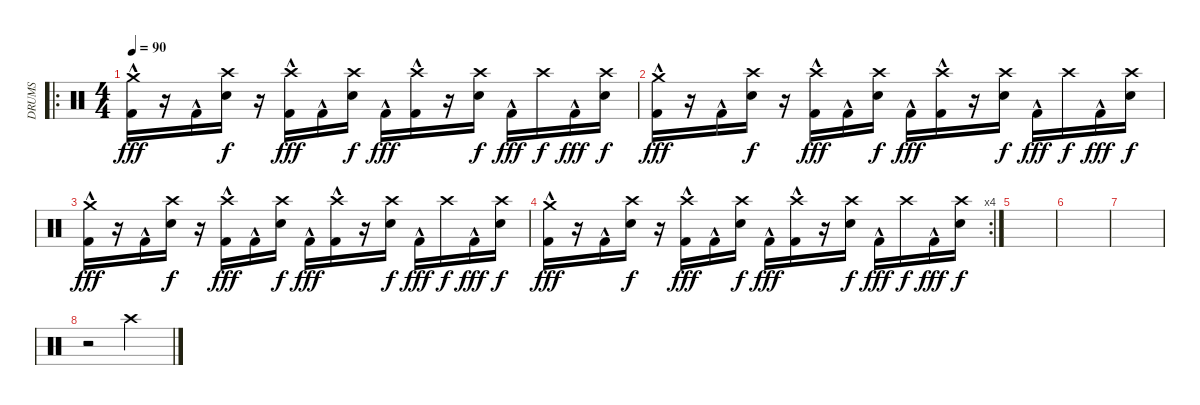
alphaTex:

\track ("DRUMS" "DRUMS") {instrument percussion}
\staff {score}
\articulation defaults
\ro
\ts (4 4)
\tempo 90
\clef neutral
\ks c
("Crash medium (hit)" "Kick (hit) 2"{hac}).16{dy fff} r.16 "Kick (hit) 2"{hac}.16 ("Crash high (hit)" "Electric Snare (hit)").16{dy f} r.16 ("Crash high (hit)" "Kick (hit) 2"{hac}).16{dy fff} "Kick (hit) 2"{hac}.16 ("Crash high (hit)" "Electric Snare (hit)").16{dy f} "Kick (hit) 2"{hac}.16{dy fff} ("Crash high (hit)" "Kick (hit) 2"{hac}).16 r.16 ("Crash high (hit)" "Electric Snare (hit)").16{dy f} "Kick (hit) 2"{hac}.16{dy fff} "Crash high (hit)".16{dy f} "Kick (hit) 2"{hac}.16{dy fff} ("Crash high (hit)" "Electric Snare (hit)").16{dy f} |
("Crash medium (hit)" "Kick (hit) 2"{hac}).16{dy fff} r.16 "Kick (hit) 2"{hac}.16 ("Crash high (hit)" "Electric Snare (hit)").16{dy f} r.16 ("Crash high (hit)" "Kick (hit) 2"{hac}).16{dy fff} "Kick (hit) 2"{hac}.16 ("Crash high (hit)" "Electric Snare (hit)").16{dy f} "Kick (hit) 2"{hac}.16{dy fff} ("Crash high (hit)" "Kick (hit) 2"{hac}).16 r.16 ("Crash high (hit)" "Electric Snare (hit)").16{dy f} "Kick (hit) 2"{hac}.16{dy fff} "Crash high (hit)".16{dy f} "Kick (hit) 2"{hac}.16{dy fff} ("Crash high (hit)" "Electric Snare (hit)").16{dy f} |
("Crash medium (hit)" "Kick (hit) 2"{hac}).16{dy fff} r.16 "Kick (hit) 2"{hac}.16 ("Crash high (hit)" "Electric Snare (hit)").16{dy f} r.16 ("Crash high (hit)" "Kick (hit) 2"{hac}).16{dy fff} "Kick (hit) 2"{hac}.16 ("Crash high (hit)" "Electric Snare (hit)").16{dy f} "Kick (hit) 2"{hac}.16{dy fff} ("Crash high (hit)" "Kick (hit) 2"{hac}).16 r.16 ("Crash high (hit)" "Electric Snare (hit)").16{dy f} "Kick (hit) 2"{hac}.16{dy fff} "Crash high (hit)".16{dy f} "Kick (hit) 2"{hac}.16{dy fff} ("Crash high (hit)" "Electric Snare (hit)").16{dy f} |
\rc 4
("Crash medium (hit)" "Kick (hit) 2"{hac}).16{dy fff} r.16 "Kick (hit) 2"{hac}.16 ("Crash high (hit)" "Electric Snare (hit)").16{dy f} r.16 ("Crash high (hit)" "Kick (hit) 2"{hac}).16{dy fff} "Kick (hit) 2"{hac}.16 ("Crash high (hit)" "Electric Snare (hit)").16{dy f} "Kick (hit) 2"{hac}.16{dy fff} ("Crash high (hit)" "Kick (hit) 2"{hac}).16 r.16 ("Crash high (hit)" "Electric Snare (hit)").16{dy f} "Kick (hit) 2"{hac}.16{dy fff} "Crash high (hit)".16{dy f} "Kick (hit) 2"{hac}.16{dy fff} ("Crash high (hit)" "Electric Snare (hit)").16{dy f} |
|
|
|
r.2 "Crash high (hit)".2
